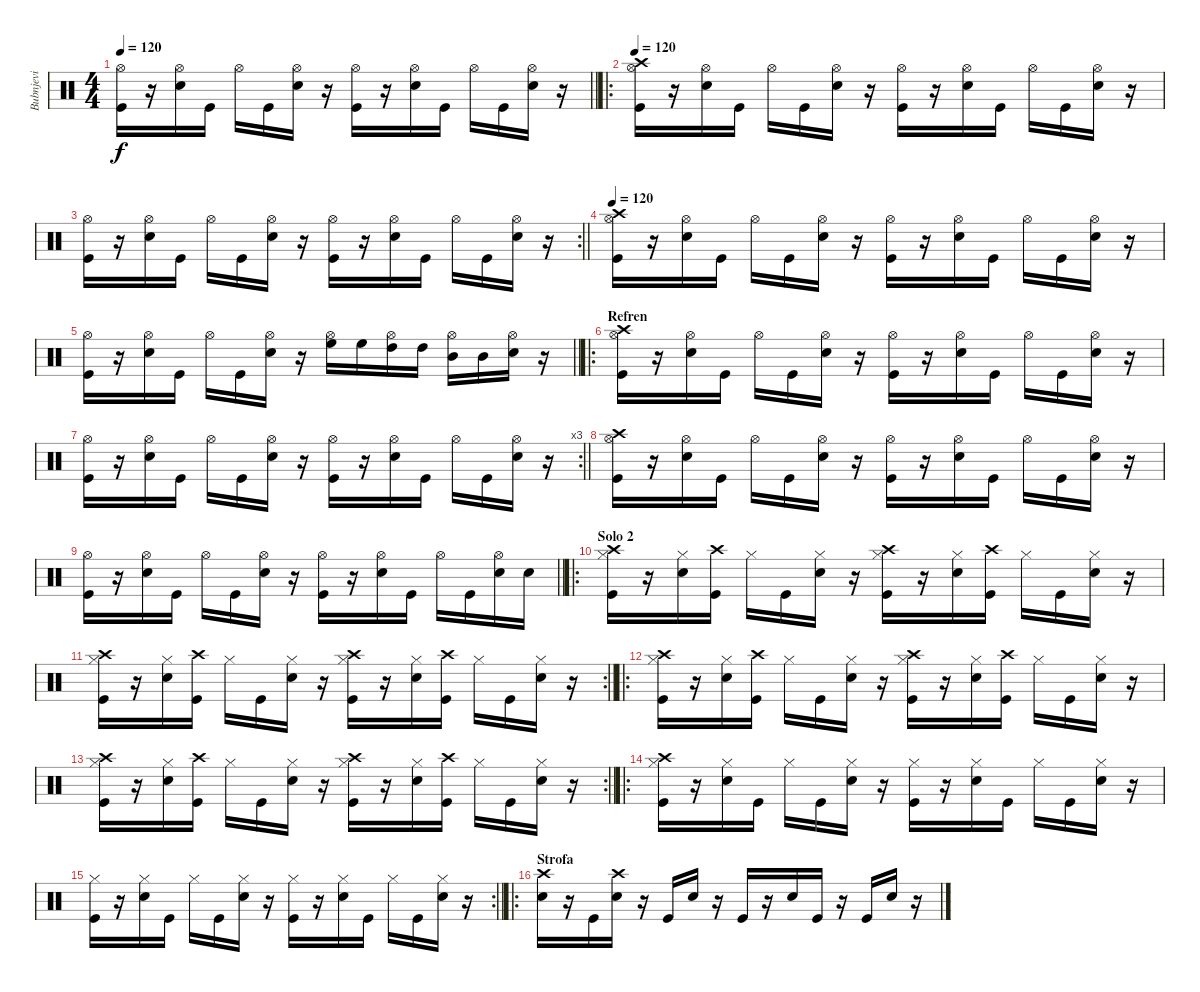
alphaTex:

\track ("Bubnjevi" "Bubnjevi") {instrument percussion}
\staff {score}
\articulation defaults
\ts (4 4)
\tempo 120
\clef neutral
\barLineRight lightlight
\ks c
("Kick (hit)" "Hi-Hat (open)").16{dy f} r.16 ("Snare (hit) 2" "Hi-Hat (open)").16 "Kick (hit)".16 "Hi-Hat (open)".16 "Kick (hit)".16 ("Snare (hit) 2" "Hi-Hat (open)").16 r.16 ("Kick (hit)" "Hi-Hat (open)").16 r.16 ("Snare (hit) 2" "Hi-Hat (open)").16 "Kick (hit)".16 "Hi-Hat (open)".16 "Kick (hit)".16 ("Snare (hit) 2" "Hi-Hat (open)").16 r.16 |
\ro
\tempo 120
("Kick (hit)" "Hi-Hat (open)" "Crash high (hit)").16 r.16 ("Snare (hit) 2" "Hi-Hat (open)").16 "Kick (hit)".16 "Hi-Hat (open)".16 "Kick (hit)".16 ("Snare (hit) 2" "Hi-Hat (open)").16 r.16 ("Kick (hit)" "Hi-Hat (open)").16 r.16 ("Snare (hit) 2" "Hi-Hat (open)").16 "Kick (hit)".16 "Hi-Hat (open)".16 "Kick (hit)".16 ("Snare (hit) 2" "Hi-Hat (open)").16 r.16 |
\rc 2
\barLineRight lightlight
("Kick (hit)" "Hi-Hat (open)").16 r.16 ("Snare (hit) 2" "Hi-Hat (open)").16 "Kick (hit)".16 "Hi-Hat (open)".16 "Kick (hit)".16 ("Snare (hit) 2" "Hi-Hat (open)").16 r.16 ("Kick (hit)" "Hi-Hat (open)").16 r.16 ("Snare (hit) 2" "Hi-Hat (open)").16 "Kick (hit)".16 "Hi-Hat (open)".16 "Kick (hit)".16 ("Snare (hit) 2" "Hi-Hat (open)").16 r.16 |
\tempo 120
("Kick (hit)" "Hi-Hat (open)" "Crash high (hit)").16 r.16 ("Snare (hit) 2" "Hi-Hat (open)").16 "Kick (hit)".16 "Hi-Hat (open)".16 "Kick (hit)".16 ("Snare (hit) 2" "Hi-Hat (open)").16 r.16 ("Kick (hit)" "Hi-Hat (open)").16 r.16 ("Snare (hit) 2" "Hi-Hat (open)").16 "Kick (hit)".16 "Hi-Hat (open)".16 "Kick (hit)".16 ("Snare (hit) 2" "Hi-Hat (open)").16 r.16 |
\barLineRight lightlight
("Kick (hit)" "Hi-Hat (open)").16 r.16 ("Snare (hit) 2" "Hi-Hat (open)").16 "Kick (hit)".16 "Hi-Hat (open)".16 "Kick (hit)".16 ("Snare (hit) 2" "Hi-Hat (open)").16 r.16 ("High Floor Tom (hit)" "Hi-Hat (open)").16 "High Floor Tom (hit)".16 ("High Tom (hit)" "Hi-Hat (open)").16 "High Tom (hit)".16 ("Mid Tom (hit)" "Hi-Hat (open)").16 "Mid Tom (hit)".16 ("Electric Snare (hit)" "Hi-Hat (open)").16 r.16 |
\ro
\section ("" "Refren")
("Kick (hit)" "Hi-Hat (open)" "Crash high (hit)").16 r.16 ("Snare (hit) 2" "Hi-Hat (open)").16 "Kick (hit)".16 "Hi-Hat (open)".16 "Kick (hit)".16 ("Snare (hit) 2" "Hi-Hat (open)").16 r.16 ("Kick (hit)" "Hi-Hat (open)").16 r.16 ("Snare (hit) 2" "Hi-Hat (open)").16 "Kick (hit)".16 "Hi-Hat (open)".16 "Kick (hit)".16 ("Snare (hit) 2" "Hi-Hat (open)").16 r.16 |
\rc 3
\barLineRight lightlight
("Kick (hit)" "Hi-Hat (open)").16 r.16 ("Snare (hit) 2" "Hi-Hat (open)").16 "Kick (hit)".16 "Hi-Hat (open)".16 "Kick (hit)".16 ("Snare (hit) 2" "Hi-Hat (open)").16 r.16 ("Kick (hit)" "Hi-Hat (open)").16 r.16 ("Snare (hit) 2" "Hi-Hat (open)").16 "Kick (hit)".16 "Hi-Hat (open)".16 "Kick (hit)".16 ("Snare (hit) 2" "Hi-Hat (open)").16 r.16 |
("Kick (hit)" "Hi-Hat (open)" "Crash high (hit)").16 r.16 ("Snare (hit) 2" "Hi-Hat (open)").16 "Kick (hit)".16 "Hi-Hat (open)".16 "Kick (hit)".16 ("Snare (hit) 2" "Hi-Hat (open)").16 r.16 ("Kick (hit)" "Hi-Hat (open)").16 r.16 ("Snare (hit) 2" "Hi-Hat (open)").16 "Kick (hit)".16 "Hi-Hat (open)".16 "Kick (hit)".16 ("Snare (hit) 2" "Hi-Hat (open)").16 r.16 |
\barLineRight lightlight
("Kick (hit)" "Hi-Hat (open)").16 r.16 ("Snare (hit) 2" "Hi-Hat (open)").16 "Kick (hit)".16 "Hi-Hat (open)".16 "Kick (hit)".16 ("Snare (hit) 2" "Hi-Hat (open)").16 r.16 ("Kick (hit)" "Hi-Hat (open)").16 r.16 ("Snare (hit) 2" "Hi-Hat (open)").16 "Kick (hit)".16 "Hi-Hat (open)".16 "Kick (hit)".16 ("Snare (hit) 2" "Hi-Hat (open)").16 "Snare (hit) 2".16 |
\ro
\section ("" "Solo 2")
("Kick (hit)" "Hi-Hat (closed)" "Crash high (hit)").16 r.16 ("Snare (hit) 2" "Hi-Hat (closed)").16 ("Kick (hit)" "Crash high (hit)").16 "Hi-Hat (closed)".16 "Kick (hit)".16 ("Snare (hit) 2" "Hi-Hat (closed)").16 r.16 ("Kick (hit)" "Hi-Hat (closed)" "Crash high (hit)").16 r.16 ("Snare (hit) 2" "Hi-Hat (closed)").16 ("Kick (hit)" "Crash high (hit)").16 "Hi-Hat (closed)".16 "Kick (hit)".16 ("Snare (hit) 2" "Hi-Hat (closed)").16 r.16 |
\rc 2
\barLineRight lightlight
("Kick (hit)" "Hi-Hat (closed)" "Crash high (hit)").16 r.16 ("Snare (hit) 2" "Hi-Hat (closed)").16 ("Kick (hit)" "Crash high (hit)").16 "Hi-Hat (closed)".16 "Kick (hit)".16 ("Snare (hit) 2" "Hi-Hat (closed)").16 r.16 ("Kick (hit)" "Hi-Hat (closed)" "Crash high (hit)").16 r.16 ("Snare (hit) 2" "Hi-Hat (closed)").16 ("Kick (hit)" "Crash high (hit)").16 "Hi-Hat (closed)".16 "Kick (hit)".16 ("Snare (hit) 2" "Hi-Hat (closed)").16 r.16 |
\ro
("Kick (hit)" "Hi-Hat (closed)" "Crash high (hit)").16 r.16 ("Snare (hit) 2" "Hi-Hat (closed)").16 ("Kick (hit)" "Crash high (hit)").16 "Hi-Hat (closed)".16 "Kick (hit)".16 ("Snare (hit) 2" "Hi-Hat (closed)").16 r.16 ("Kick (hit)" "Hi-Hat (closed)" "Crash high (hit)").16 r.16 ("Snare (hit) 2" "Hi-Hat (closed)").16 ("Kick (hit)" "Crash high (hit)").16 "Hi-Hat (closed)".16 "Kick (hit)".16 ("Snare (hit) 2" "Hi-Hat (closed)").16 r.16 |
\rc 2
\barLineRight lightlight
("Kick (hit)" "Hi-Hat (closed)" "Crash high (hit)").16 r.16 ("Snare (hit) 2" "Hi-Hat (closed)").16 ("Kick (hit)" "Crash high (hit)").16 "Hi-Hat (closed)".16 "Kick (hit)".16 ("Snare (hit) 2" "Hi-Hat (closed)").16 r.16 ("Kick (hit)" "Hi-Hat (closed)" "Crash high (hit)").16 r.16 ("Snare (hit) 2" "Hi-Hat (closed)").16 ("Kick (hit)" "Crash high (hit)").16 "Hi-Hat (closed)".16 "Kick (hit)".16 ("Snare (hit) 2" "Hi-Hat (closed)").16 r.16 |
\ro
("Kick (hit)" "Hi-Hat (closed)" "Crash high (hit)").16 r.16 ("Snare (hit) 2" "Hi-Hat (closed)").16 "Kick (hit)".16 "Hi-Hat (closed)".16 "Kick (hit)".16 ("Snare (hit) 2" "Hi-Hat (closed)").16 r.16 ("Kick (hit)" "Hi-Hat (closed)").16 r.16 ("Snare (hit) 2" "Hi-Hat (closed)").16 "Kick (hit)".16 "Hi-Hat (closed)".16 "Kick (hit)".16 ("Snare (hit) 2" "Hi-Hat (closed)").16 r.16 |
\rc 2
\barLineRight lightlight
("Kick (hit)" "Hi-Hat (closed)").16 r.16 ("Snare (hit) 2" "Hi-Hat (closed)").16 "Kick (hit)".16 "Hi-Hat (closed)".16 "Kick (hit)".16 ("Snare (hit) 2" "Hi-Hat (closed)").16 r.16 ("Kick (hit)" "Hi-Hat (closed)").16 r.16 ("Snare (hit) 2" "Hi-Hat (closed)").16 "Kick (hit)".16 "Hi-Hat (closed)".16 "Kick (hit)".16 ("Snare (hit) 2" "Hi-Hat (closed)").16 r.16 |
\ro
\section ("" "Strofa")
("Snare (hit) 2" "Crash high (hit)").16 r.16 "Kick (hit)".16 ("Snare (hit) 2" "Crash high (hit)").16 r.16 "Kick (hit)".16 "Snare (hit) 2".16 r.16 "Kick (hit)".16 r.16 "Snare (hit) 2".16 "Kick (hit)".16 r.16 "Kick (hit)".16 "Snare (hit) 2".16 r.16
